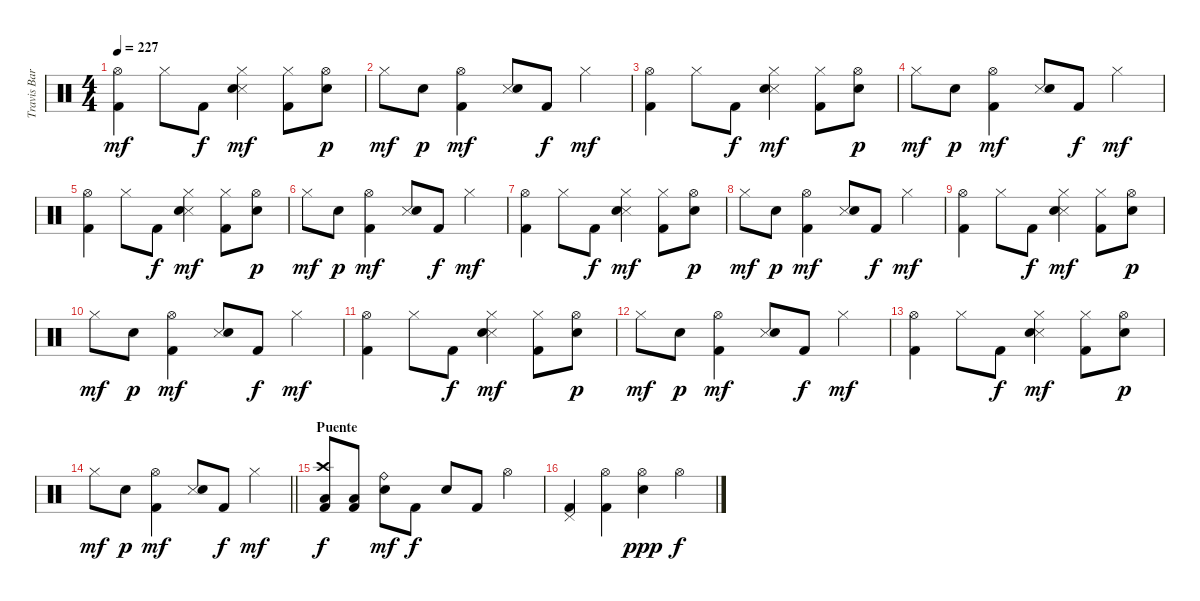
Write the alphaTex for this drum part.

\track ("Travis Barker - Drum" "Travis Bar") {instrument percussion}
\staff {score}
\articulation defaults
\ts (4 4)
\tempo 227
\clef neutral
\ks c
("Hi-Hat (open)" "Kick (hit) 2").4{dy mf} "Hi-Hat (closed)".8 "Kick (hit) 2".8{dy f} ("Hi-Hat (closed)" "Snare (side stick) 3" "Electric Snare (hit)").4{dy mf} ("Hi-Hat (closed)" "Kick (hit) 2").8 ("Hi-Hat (open)" "Electric Snare (hit)").8{dy p} |
"Hi-Hat (closed)".8{dy mf} "Electric Snare (hit)".8{dy p} ("Hi-Hat (open)" "Kick (hit) 2").4{dy mf} ("Snare (side stick) 3" "Electric Snare (hit)").8 "Kick (hit) 2".8{dy f} "Hi-Hat (closed)".4{dy mf} |
("Hi-Hat (open)" "Kick (hit) 2").4 "Hi-Hat (closed)".8 "Kick (hit) 2".8{dy f} ("Hi-Hat (closed)" "Snare (side stick) 3" "Electric Snare (hit)").4{dy mf} ("Hi-Hat (closed)" "Kick (hit) 2").8 ("Hi-Hat (open)" "Electric Snare (hit)").8{dy p} |
"Hi-Hat (closed)".8{dy mf} "Electric Snare (hit)".8{dy p} ("Hi-Hat (open)" "Kick (hit) 2").4{dy mf} ("Snare (side stick) 3" "Electric Snare (hit)").8 "Kick (hit) 2".8{dy f} "Hi-Hat (closed)".4{dy mf} |
("Hi-Hat (open)" "Kick (hit) 2").4 "Hi-Hat (closed)".8 "Kick (hit) 2".8{dy f} ("Hi-Hat (closed)" "Snare (side stick) 3" "Electric Snare (hit)").4{dy mf} ("Hi-Hat (closed)" "Kick (hit) 2").8 ("Hi-Hat (open)" "Electric Snare (hit)").8{dy p} |
"Hi-Hat (closed)".8{dy mf} "Electric Snare (hit)".8{dy p} ("Hi-Hat (open)" "Kick (hit) 2").4{dy mf} ("Snare (side stick) 3" "Electric Snare (hit)").8 "Kick (hit) 2".8{dy f} "Hi-Hat (closed)".4{dy mf} |
("Hi-Hat (open)" "Kick (hit) 2").4 "Hi-Hat (closed)".8 "Kick (hit) 2".8{dy f} ("Hi-Hat (closed)" "Snare (side stick) 3" "Electric Snare (hit)").4{dy mf} ("Hi-Hat (closed)" "Kick (hit) 2").8 ("Hi-Hat (open)" "Electric Snare (hit)").8{dy p} |
"Hi-Hat (closed)".8{dy mf} "Electric Snare (hit)".8{dy p} ("Hi-Hat (open)" "Kick (hit) 2").4{dy mf} ("Snare (side stick) 3" "Electric Snare (hit)").8 "Kick (hit) 2".8{dy f} "Hi-Hat (closed)".4{dy mf} |
("Hi-Hat (open)" "Kick (hit) 2").4 "Hi-Hat (closed)".8 "Kick (hit) 2".8{dy f} ("Hi-Hat (closed)" "Snare (side stick) 3" "Electric Snare (hit)").4{dy mf} ("Hi-Hat (closed)" "Kick (hit) 2").8 ("Hi-Hat (open)" "Electric Snare (hit)").8{dy p} |
"Hi-Hat (closed)".8{dy mf} "Electric Snare (hit)".8{dy p} ("Hi-Hat (open)" "Kick (hit) 2").4{dy mf} ("Snare (side stick) 3" "Electric Snare (hit)").8 "Kick (hit) 2".8{dy f} "Hi-Hat (closed)".4{dy mf} |
("Hi-Hat (open)" "Kick (hit) 2").4 "Hi-Hat (closed)".8 "Kick (hit) 2".8{dy f} ("Hi-Hat (closed)" "Snare (side stick) 3" "Electric Snare (hit)").4{dy mf} ("Hi-Hat (closed)" "Kick (hit) 2").8 ("Hi-Hat (open)" "Electric Snare (hit)").8{dy p} |
"Hi-Hat (closed)".8{dy mf} "Electric Snare (hit)".8{dy p} ("Hi-Hat (open)" "Kick (hit) 2").4{dy mf} ("Snare (side stick) 3" "Electric Snare (hit)").8 "Kick (hit) 2".8{dy f} "Hi-Hat (closed)".4{dy mf} |
("Hi-Hat (open)" "Kick (hit) 2").4 "Hi-Hat (closed)".8 "Kick (hit) 2".8{dy f} ("Hi-Hat (closed)" "Snare (side stick) 3" "Electric Snare (hit)").4{dy mf} ("Hi-Hat (closed)" "Kick (hit) 2").8 ("Hi-Hat (open)" "Electric Snare (hit)").8{dy p} |
\barLineRight lightlight "Hi-Hat (closed)".8{dy mf} "Electric Snare (hit)".8{dy p}
("Hi-Hat (open)" "Kick (hit) 2").4{dy mf} ("Snare (side stick) 3" "Electric Snare (hit)").8 "Kick (hit) 2".8{dy f} "Hi-Hat (closed)".4{dy mf} |
\section ("" "Puente")
("Crash high (hit)" "Low Floor Tom (hit)" "Kick (hit) 2").8{dy f} ("Low Floor Tom (hit)" "Kick (hit) 2").8 ("Electric Snare (hit)" "Ride (bell)").8{dy mf} "Kick (hit) 2".8{dy f} "Electric Snare (hit)".8 "Kick (hit) 2".8 "Hi-Hat (open)".4 |
("Pedal Hi-Hat (hit)" "Kick (hit) 2").4 ("Hi-Hat (open)" "Kick (hit) 2").4 ("Hi-Hat (open)" "Electric Snare (hit)").4{dy ppp} "Hi-Hat (open)".4{dy f}
